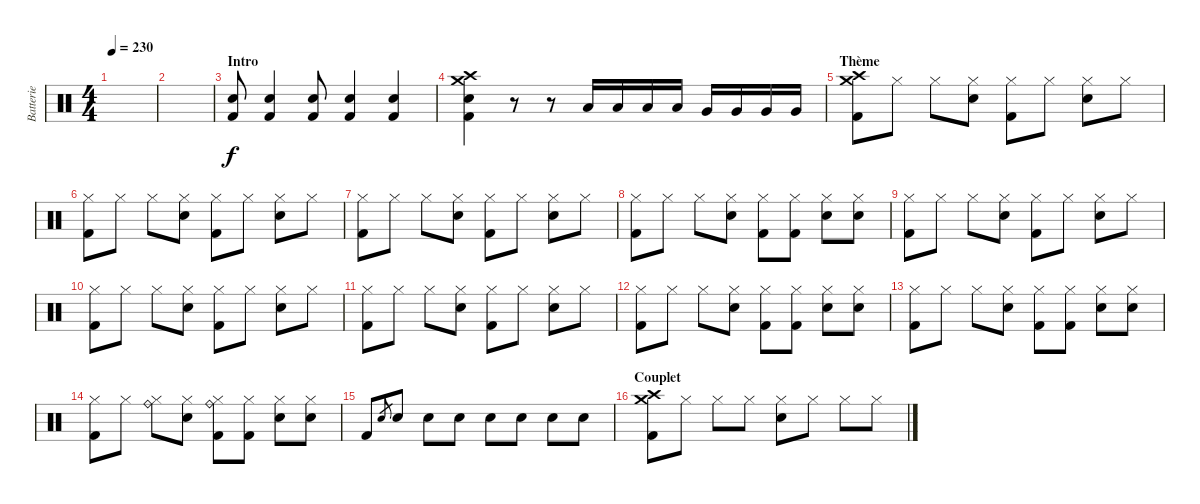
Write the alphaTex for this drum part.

\track ("Batterie" "Batterie") {instrument percussion}
\staff {score}
\articulation defaults
\ts (4 4)
\tempo 230
\clef neutral
\ks c
|
|
\section ("" "Intro")
("Electric Snare (hit)" "Kick (hit) 2").8 ("Electric Snare (hit)" "Kick (hit) 2").4 ("Electric Snare (hit)" "Kick (hit) 2").8 ("Electric Snare (hit)" "Kick (hit) 2").4 ("Electric Snare (hit)" "Kick (hit) 2").4 |
("Crash medium (hit)" "Crash high (hit)" "Electric Snare (hit)" "Kick (hit) 2").4 r.8 r.8 "Low Tom (hit)".16 "Low Tom (hit)".16 "Low Tom (hit)".16 "Low Tom (hit)".16 "Very Low Tom (hit)".16 "Very Low Tom (hit)".16 "Very Low Tom (hit)".16 "Very Low Tom (hit)".16 |
\section ("" "Thème")
("Crash high (hit)" "Crash medium (hit)" "Kick (hit) 2").8 "Hi-Hat (closed)".8 "Hi-Hat (closed)".8 ("Hi-Hat (closed)" "Electric Snare (hit)").8 ("Hi-Hat (closed)" "Kick (hit) 2").8 "Hi-Hat (closed)".8 ("Hi-Hat (closed)" "Electric Snare (hit)").8 "Hi-Hat (closed)".8 |
("Hi-Hat (closed)" "Kick (hit) 2").8 "Hi-Hat (closed)".8 "Hi-Hat (closed)".8 ("Hi-Hat (closed)" "Electric Snare (hit)").8 ("Hi-Hat (closed)" "Kick (hit) 2").8 "Hi-Hat (closed)".8 ("Hi-Hat (closed)" "Electric Snare (hit)").8 "Hi-Hat (closed)".8 |
("Hi-Hat (closed)" "Kick (hit) 2").8 "Hi-Hat (closed)".8 "Hi-Hat (closed)".8 ("Hi-Hat (closed)" "Electric Snare (hit)").8 ("Hi-Hat (closed)" "Kick (hit) 2").8 "Hi-Hat (closed)".8 ("Hi-Hat (closed)" "Electric Snare (hit)").8 "Hi-Hat (closed)".8 |
("Hi-Hat (closed)" "Kick (hit) 2").8 "Hi-Hat (closed)".8 "Hi-Hat (closed)".8 ("Hi-Hat (closed)" "Electric Snare (hit)").8 ("Hi-Hat (closed)" "Kick (hit) 2").8 ("Hi-Hat (closed)" "Kick (hit) 2").8 ("Hi-Hat (closed)" "Electric Snare (hit)").8 ("Hi-Hat (closed)" "Electric Snare (hit)").8 |
("Hi-Hat (closed)" "Kick (hit) 2").8 "Hi-Hat (closed)".8 "Hi-Hat (closed)".8 ("Hi-Hat (closed)" "Electric Snare (hit)").8 ("Hi-Hat (closed)" "Kick (hit) 2").8 "Hi-Hat (closed)".8 ("Hi-Hat (closed)" "Electric Snare (hit)").8 "Hi-Hat (closed)".8 |
("Hi-Hat (closed)" "Kick (hit) 2").8 "Hi-Hat (closed)".8 "Hi-Hat (closed)".8 ("Hi-Hat (closed)" "Electric Snare (hit)").8 ("Hi-Hat (closed)" "Kick (hit) 2").8 "Hi-Hat (closed)".8 ("Hi-Hat (closed)" "Electric Snare (hit)").8 "Hi-Hat (closed)".8 |
("Hi-Hat (closed)" "Kick (hit) 2").8 "Hi-Hat (closed)".8 "Hi-Hat (closed)".8 ("Hi-Hat (closed)" "Electric Snare (hit)").8 ("Hi-Hat (closed)" "Kick (hit) 2").8 "Hi-Hat (closed)".8 ("Hi-Hat (closed)" "Electric Snare (hit)").8 "Hi-Hat (closed)".8 |
("Hi-Hat (closed)" "Kick (hit) 2").8 "Hi-Hat (closed)".8 "Hi-Hat (closed)".8 ("Hi-Hat (closed)" "Electric Snare (hit)").8 ("Hi-Hat (closed)" "Kick (hit) 2").8 ("Hi-Hat (closed)" "Kick (hit) 2").8 ("Hi-Hat (closed)" "Electric Snare (hit)").8 ("Hi-Hat (closed)" "Electric Snare (hit)").8 |
("Hi-Hat (closed)" "Kick (hit) 2").8 "Hi-Hat (closed)".8 "Hi-Hat (closed)".8 ("Hi-Hat (closed)" "Electric Snare (hit)").8 ("Hi-Hat (closed)" "Kick (hit) 2").8 ("Hi-Hat (closed)" "Kick (hit) 2").8 ("Hi-Hat (closed)" "Electric Snare (hit)").8 ("Hi-Hat (closed)" "Electric Snare (hit)").8 |
("Hi-Hat (closed)" "Kick (hit) 2").8 "Hi-Hat (closed)".8 ("Hi-Hat (closed)" "Ride (bell)").8 ("Hi-Hat (closed)" "Electric Snare (hit)").8 ("Hi-Hat (closed)" "Ride (bell)" "Kick (hit) 2").8 ("Hi-Hat (closed)" "Kick (hit) 2").8 ("Hi-Hat (closed)" "Electric Snare (hit)").8 ("Hi-Hat (closed)" "Electric Snare (hit)").8 |
"Kick (hit) 2".8 "Electric Snare (hit)".8{gr} "Electric Snare (hit)".8 "Electric Snare (hit)".8 "Electric Snare (hit)".8 "Electric Snare (hit)".8 "Electric Snare (hit)".8 "Electric Snare (hit)".8 "Electric Snare (hit)".8 |
\section ("" "Couplet")
("Crash high (hit)" "Crash medium (hit)" "Kick (hit) 2").8 "Hi-Hat (closed)".8 "Hi-Hat (closed)".8 "Hi-Hat (closed)".8 ("Hi-Hat (closed)" "Electric Snare (hit)").8 "Hi-Hat (closed)".8 "Hi-Hat (closed)".8 "Hi-Hat (closed)".8
